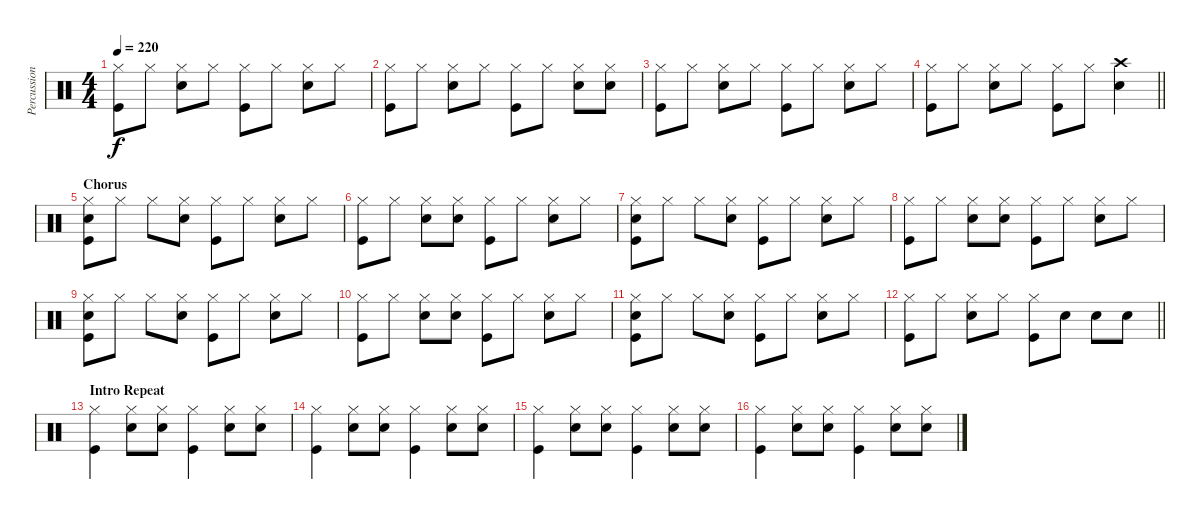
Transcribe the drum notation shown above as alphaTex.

\track ("Percussion" "Percussion") {instrument percussion}
\staff {score}
\articulation defaults
\ts (4 4)
\tempo 220
\clef neutral
\ks c
("Kick (hit)" "Hi-Hat (closed)").8{dy f} "Hi-Hat (closed)".8 ("Hi-Hat (closed)" "Snare (hit) 2").8 "Hi-Hat (closed)".8 ("Kick (hit)" "Hi-Hat (closed)").8 "Hi-Hat (closed)".8 ("Hi-Hat (closed)" "Snare (hit) 2").8 "Hi-Hat (closed)".8 |
("Kick (hit)" "Hi-Hat (closed)").8 "Hi-Hat (closed)".8 ("Hi-Hat (closed)" "Snare (hit) 2").8 "Hi-Hat (closed)".8 ("Kick (hit)" "Hi-Hat (closed)").8 "Hi-Hat (closed)".8 ("Hi-Hat (closed)" "Snare (hit) 2").8 ("Hi-Hat (closed)" "Snare (hit) 2").8 |
("Kick (hit)" "Hi-Hat (closed)").8 "Hi-Hat (closed)".8 ("Hi-Hat (closed)" "Snare (hit) 2").8 "Hi-Hat (closed)".8 ("Kick (hit)" "Hi-Hat (closed)").8 "Hi-Hat (closed)".8 ("Hi-Hat (closed)" "Snare (hit) 2").8 "Hi-Hat (closed)".8 |
\barLineRight lightlight
("Kick (hit)" "Hi-Hat (closed)").8 "Hi-Hat (closed)".8 ("Hi-Hat (closed)" "Snare (hit) 2").8 "Hi-Hat (closed)".8 ("Kick (hit)" "Hi-Hat (closed)").8 "Hi-Hat (closed)".8 ("Crash high (hit)" "Snare (hit) 2").4 |
\section ("" "Chorus")
("Kick (hit)" "Hi-Hat (closed)" "Snare (hit) 2").8 "Hi-Hat (closed)".8 "Hi-Hat (closed)".8 ("Hi-Hat (closed)" "Snare (hit) 2").8 ("Kick (hit)" "Hi-Hat (closed)").8 "Hi-Hat (closed)".8 ("Hi-Hat (closed)" "Snare (hit) 2").8 "Hi-Hat (closed)".8 |
("Kick (hit)" "Hi-Hat (closed)").8 "Hi-Hat (closed)".8 ("Hi-Hat (closed)" "Snare (hit) 2").8 ("Hi-Hat (closed)" "Snare (hit) 2").8 ("Kick (hit)" "Hi-Hat (closed)").8 "Hi-Hat (closed)".8 ("Hi-Hat (closed)" "Snare (hit) 2").8 "Hi-Hat (closed)".8 |
("Kick (hit)" "Hi-Hat (closed)" "Snare (hit) 2").8 "Hi-Hat (closed)".8 "Hi-Hat (closed)".8 ("Hi-Hat (closed)" "Snare (hit) 2").8 ("Kick (hit)" "Hi-Hat (closed)").8 "Hi-Hat (closed)".8 ("Hi-Hat (closed)" "Snare (hit) 2").8 "Hi-Hat (closed)".8 |
("Kick (hit)" "Hi-Hat (closed)").8 "Hi-Hat (closed)".8 ("Hi-Hat (closed)" "Snare (hit) 2").8 ("Hi-Hat (closed)" "Snare (hit) 2").8 ("Kick (hit)" "Hi-Hat (closed)").8 "Hi-Hat (closed)".8 ("Hi-Hat (closed)" "Snare (hit) 2").8 "Hi-Hat (closed)".8 |
("Kick (hit)" "Hi-Hat (closed)" "Snare (hit) 2").8 "Hi-Hat (closed)".8 "Hi-Hat (closed)".8 ("Hi-Hat (closed)" "Snare (hit) 2").8 ("Kick (hit)" "Hi-Hat (closed)").8 "Hi-Hat (closed)".8 ("Hi-Hat (closed)" "Snare (hit) 2").8 "Hi-Hat (closed)".8 |
("Kick (hit)" "Hi-Hat (closed)").8 "Hi-Hat (closed)".8 ("Hi-Hat (closed)" "Snare (hit) 2").8 ("Hi-Hat (closed)" "Snare (hit) 2").8 ("Kick (hit)" "Hi-Hat (closed)").8 "Hi-Hat (closed)".8 ("Hi-Hat (closed)" "Snare (hit) 2").8 "Hi-Hat (closed)".8 |
("Kick (hit)" "Hi-Hat (closed)" "Snare (hit) 2").8 "Hi-Hat (closed)".8 "Hi-Hat (closed)".8 ("Hi-Hat (closed)" "Snare (hit) 2").8 ("Kick (hit)" "Hi-Hat (closed)").8 "Hi-Hat (closed)".8 ("Hi-Hat (closed)" "Snare (hit) 2").8 "Hi-Hat (closed)".8 |
\barLineRight lightlight
("Kick (hit)" "Hi-Hat (closed)").8 "Hi-Hat (closed)".8 ("Hi-Hat (closed)" "Snare (hit) 2").8 "Hi-Hat (closed)".8 ("Kick (hit)" "Hi-Hat (closed)").8 "Snare (hit) 2".8 "Snare (hit) 2".8 "Snare (hit) 2".8 |
\section ("" "Intro Repeat")
("Kick (hit)" "Hi-Hat (closed)").4 ("Hi-Hat (closed)" "Snare (hit) 2").8 ("Hi-Hat (closed)" "Snare (hit) 2").8 ("Kick (hit)" "Hi-Hat (closed)").4 ("Hi-Hat (closed)" "Snare (hit) 2").8 ("Hi-Hat (closed)" "Snare (hit) 2").8 |
("Kick (hit)" "Hi-Hat (closed)").4 ("Hi-Hat (closed)" "Snare (hit) 2").8 ("Hi-Hat (closed)" "Snare (hit) 2").8 ("Kick (hit)" "Hi-Hat (closed)").4 ("Hi-Hat (closed)" "Snare (hit) 2").8 ("Hi-Hat (closed)" "Snare (hit) 2").8 |
("Kick (hit)" "Hi-Hat (closed)").4 ("Hi-Hat (closed)" "Snare (hit) 2").8 ("Hi-Hat (closed)" "Snare (hit) 2").8 ("Kick (hit)" "Hi-Hat (closed)").4 ("Hi-Hat (closed)" "Snare (hit) 2").8 ("Hi-Hat (closed)" "Snare (hit) 2").8 |
("Kick (hit)" "Hi-Hat (closed)").4 ("Hi-Hat (closed)" "Snare (hit) 2").8 ("Hi-Hat (closed)" "Snare (hit) 2").8 ("Kick (hit)" "Hi-Hat (closed)").4 ("Hi-Hat (closed)" "Snare (hit) 2").8 ("Hi-Hat (closed)" "Snare (hit) 2").8
